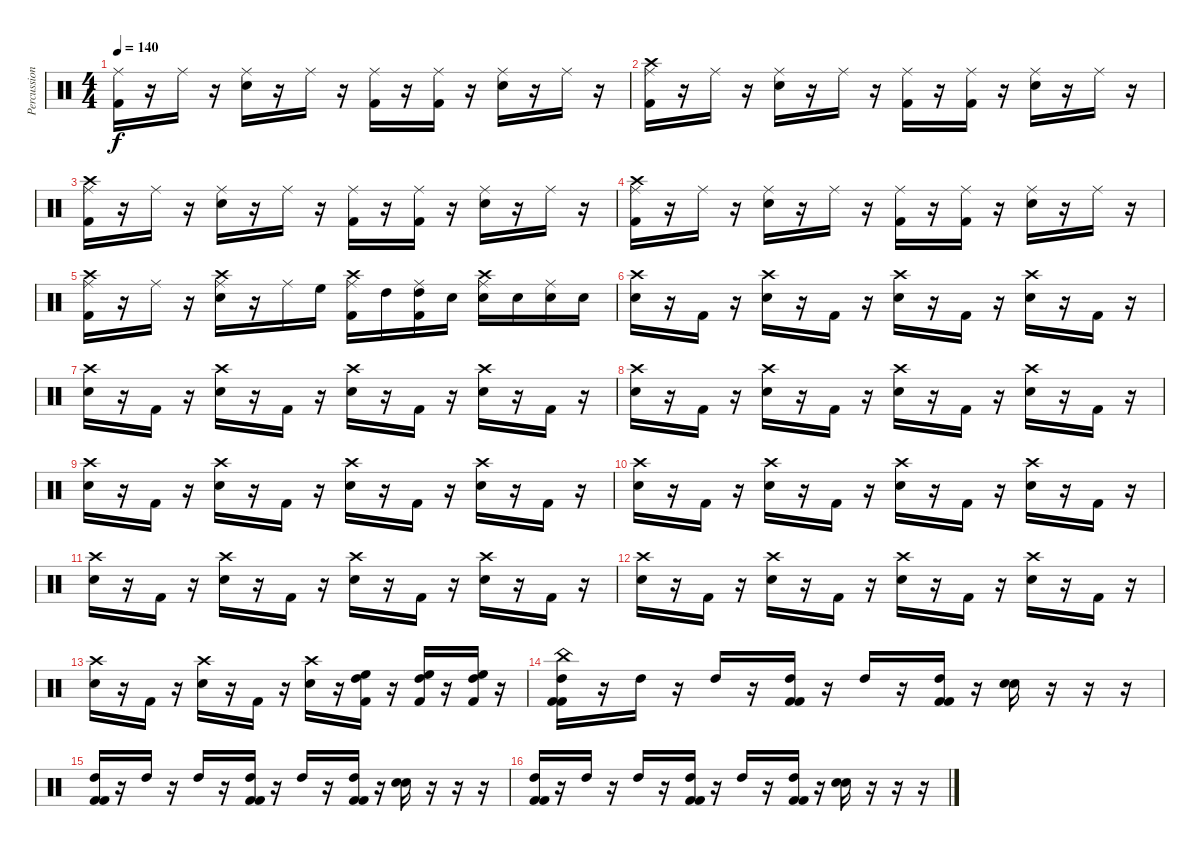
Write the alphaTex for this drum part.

\track ("Percussion" "Percussion") {instrument percussion}
\staff {score}
\articulation defaults
\ts (4 4)
\tempo 140
\clef neutral
\ks c
("Ride (middle)" "Kick (hit) 2").16{dy f} r.16 "Ride (middle)".16 r.16 ("Ride (middle)" "Electric Snare (hit)").16 r.16 "Ride (middle)".16 r.16 ("Ride (middle)" "Kick (hit) 2").16 r.16 ("Ride (middle)" "Kick (hit) 2").16 r.16 ("Ride (middle)" "Electric Snare (hit)").16 r.16 "Ride (middle)".16 r.16 |
("Ride (middle)" "Crash high (hit)" "Kick (hit) 2").16 r.16 "Ride (middle)".16 r.16 ("Ride (middle)" "Electric Snare (hit)").16 r.16 "Ride (middle)".16 r.16 ("Ride (middle)" "Kick (hit) 2").16 r.16 ("Ride (middle)" "Kick (hit) 2").16 r.16 ("Ride (middle)" "Electric Snare (hit)").16 r.16 "Ride (middle)".16 r.16 |
("Ride (middle)" "Crash high (hit)" "Kick (hit) 2").16 r.16 "Ride (middle)".16 r.16 ("Ride (middle)" "Electric Snare (hit)").16 r.16 "Ride (middle)".16 r.16 ("Ride (middle)" "Kick (hit) 2").16 r.16 ("Ride (middle)" "Kick (hit) 2").16 r.16 ("Ride (middle)" "Electric Snare (hit)").16 r.16 "Ride (middle)".16 r.16 |
("Ride (middle)" "Crash high (hit)" "Kick (hit) 2").16 r.16 "Ride (middle)".16 r.16 ("Ride (middle)" "Electric Snare (hit)").16 r.16 "Ride (middle)".16 r.16 ("Ride (middle)" "Kick (hit) 2").16 r.16 ("Ride (middle)" "Kick (hit) 2").16 r.16 ("Ride (middle)" "Electric Snare (hit)").16 r.16 "Ride (middle)".16 r.16 |
("Ride (middle)" "Crash high (hit)" "Kick (hit) 2").16 r.16 "Ride (middle)".16 r.16 ("Ride (middle)" "Crash high (hit)" "Electric Snare (hit)").16 r.16 "Ride (middle)".16 "High Floor Tom (hit)".16 ("Ride (middle)" "Crash high (hit)" "Kick (hit) 2").16 "High Tom (hit)".16 ("Ride (middle)" "High Tom (hit)" "Kick (hit) 2").16 "Electric Snare (hit)".16 ("Ride (middle)" "Crash high (hit)" "Electric Snare (hit)").16 "Electric Snare (hit)".16 ("Ride (middle)" "Electric Snare (hit)").16 "Electric Snare (hit)".16 |
("Crash high (hit)" "Electric Snare (hit)").16 r.16 "Kick (hit) 2".16 r.16 ("Crash high (hit)" "Electric Snare (hit)").16 r.16 "Kick (hit) 2".16 r.16 ("Crash high (hit)" "Electric Snare (hit)").16 r.16 "Kick (hit) 2".16 r.16 ("Crash high (hit)" "Electric Snare (hit)").16 r.16 "Kick (hit) 2".16 r.16 |
("Crash high (hit)" "Electric Snare (hit)").16 r.16 "Kick (hit) 2".16 r.16 ("Crash high (hit)" "Electric Snare (hit)").16 r.16 "Kick (hit) 2".16 r.16 ("Crash high (hit)" "Electric Snare (hit)").16 r.16 "Kick (hit) 2".16 r.16 ("Crash high (hit)" "Electric Snare (hit)").16 r.16 "Kick (hit) 2".16 r.16 |
("Crash high (hit)" "Electric Snare (hit)").16 r.16 "Kick (hit) 2".16 r.16 ("Crash high (hit)" "Electric Snare (hit)").16 r.16 "Kick (hit) 2".16 r.16 ("Crash high (hit)" "Electric Snare (hit)").16 r.16 "Kick (hit) 2".16 r.16 ("Crash high (hit)" "Electric Snare (hit)").16 r.16 "Kick (hit) 2".16 r.16 |
("Crash high (hit)" "Electric Snare (hit)").16 r.16 "Kick (hit) 2".16 r.16 ("Crash high (hit)" "Electric Snare (hit)").16 r.16 "Kick (hit) 2".16 r.16 ("Crash high (hit)" "Electric Snare (hit)").16 r.16 "Kick (hit) 2".16 r.16 ("Crash high (hit)" "Electric Snare (hit)").16 r.16 "Kick (hit) 2".16 r.16 |
("Crash high (hit)" "Electric Snare (hit)").16 r.16 "Kick (hit) 2".16 r.16 ("Crash high (hit)" "Electric Snare (hit)").16 r.16 "Kick (hit) 2".16 r.16 ("Crash high (hit)" "Electric Snare (hit)").16 r.16 "Kick (hit) 2".16 r.16 ("Crash high (hit)" "Electric Snare (hit)").16 r.16 "Kick (hit) 2".16 r.16 |
("Crash high (hit)" "Electric Snare (hit)").16 r.16 "Kick (hit) 2".16 r.16 ("Crash high (hit)" "Electric Snare (hit)").16 r.16 "Kick (hit) 2".16 r.16 ("Crash high (hit)" "Electric Snare (hit)").16 r.16 "Kick (hit) 2".16 r.16 ("Crash high (hit)" "Electric Snare (hit)").16 r.16 "Kick (hit) 2".16 r.16 |
("Crash high (hit)" "Electric Snare (hit)").16 r.16 "Kick (hit) 2".16 r.16 ("Crash high (hit)" "Electric Snare (hit)").16 r.16 "Kick (hit) 2".16 r.16 ("Crash high (hit)" "Electric Snare (hit)").16 r.16 "Kick (hit) 2".16 r.16 ("Crash high (hit)" "Electric Snare (hit)").16 r.16 "Kick (hit) 2".16 r.16 |
("Crash high (hit)" "Electric Snare (hit)").16 r.16 "Kick (hit) 2".16 r.16 ("Crash high (hit)" "Electric Snare (hit)").16 r.16 "Kick (hit) 2".16 r.16 ("Crash high (hit)" "Electric Snare (hit)").16 r.16 ("High Tom (hit)" "High Floor Tom (hit)" "Kick (hit) 2").16 r.16 ("High Tom (hit)" "High Floor Tom (hit)" "Kick (hit) 2").16 r.16 ("High Tom (hit)" "High Floor Tom (hit)" "Kick (hit) 2").16 r.16 |
("China (hit)" "High Tom (hit)" "Kick (hit) 2" "Kick (hit) 2").16 r.16 "High Tom (hit)".16 r.16 "High Tom (hit)".16 r.16 ("High Tom (hit)" "Kick (hit) 2" "Kick (hit) 2").16 r.16 "High Tom (hit)".16 r.16 ("High Tom (hit)" "Kick (hit) 2" "Kick (hit) 2").16 r.16 ("Electric Snare (hit)" "Electric Snare (hit)").16 r.16 r.16 r.16 |
("High Tom (hit)" "Kick (hit) 2" "Kick (hit) 2").16 r.16 "High Tom (hit)".16 r.16 "High Tom (hit)".16 r.16 ("High Tom (hit)" "Kick (hit) 2" "Kick (hit) 2").16 r.16 "High Tom (hit)".16 r.16 ("High Tom (hit)" "Kick (hit) 2" "Kick (hit) 2").16 r.16 ("Electric Snare (hit)" "Electric Snare (hit)").16 r.16 r.16 r.16 |
("High Tom (hit)" "Kick (hit) 2" "Kick (hit) 2").16 r.16 "High Tom (hit)".16 r.16 "High Tom (hit)".16 r.16 ("High Tom (hit)" "Kick (hit) 2" "Kick (hit) 2").16 r.16 "High Tom (hit)".16 r.16 ("High Tom (hit)" "Kick (hit) 2" "Kick (hit) 2").16 r.16 ("Electric Snare (hit)" "Electric Snare (hit)").16 r.16 r.16 r.16
